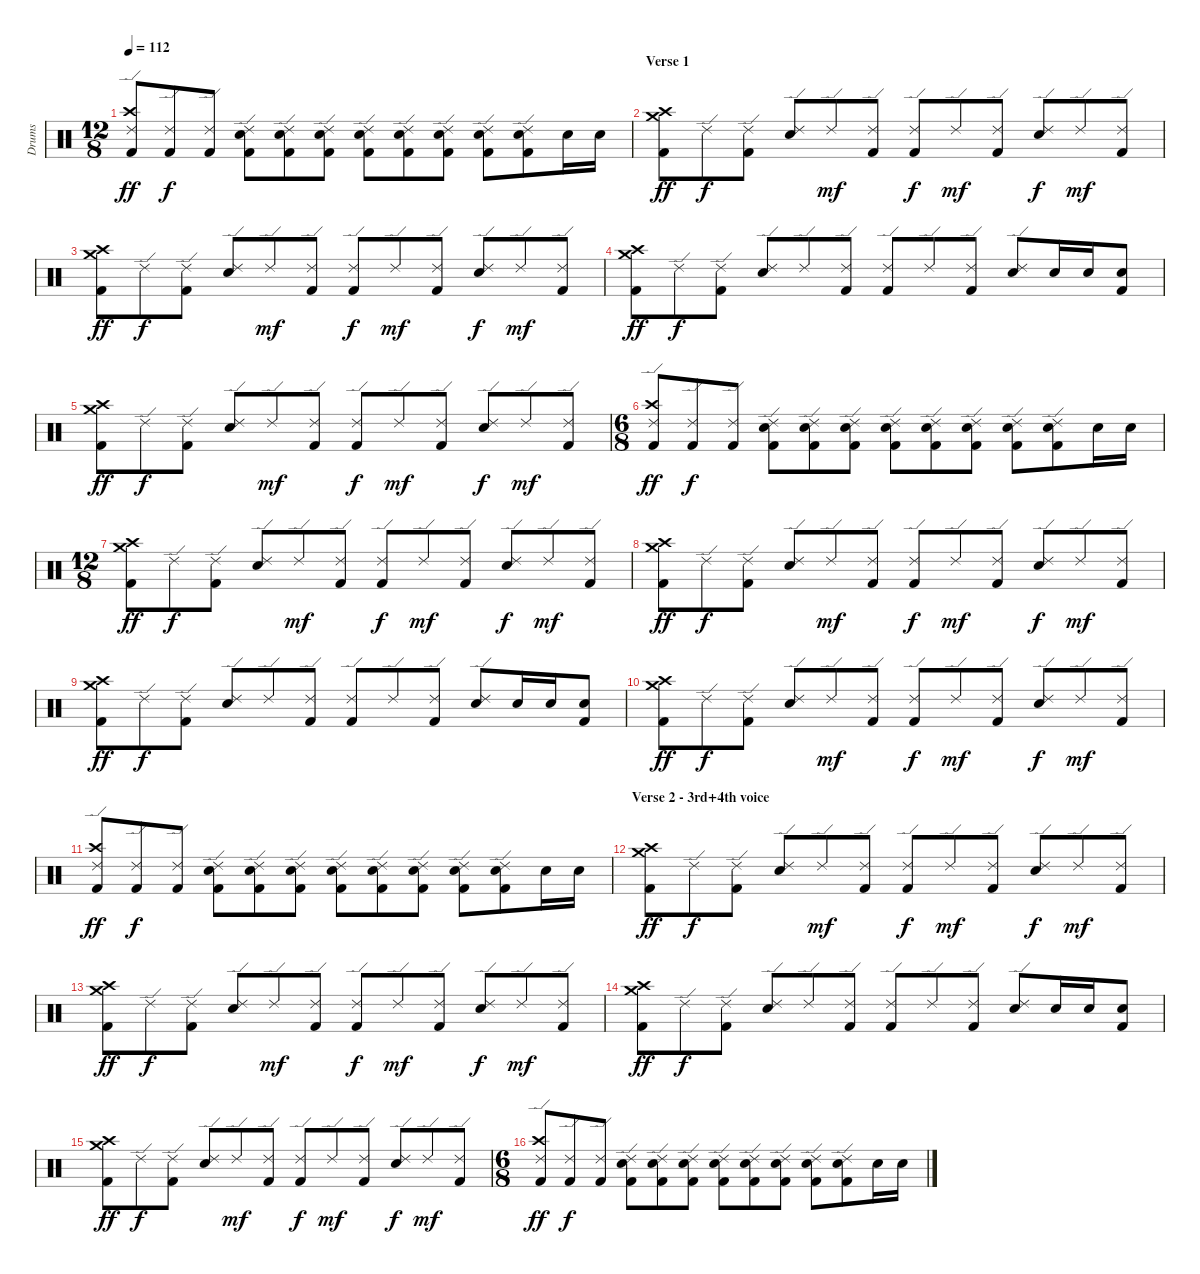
\track ("Drums" "Drums") {instrument percussion}
\staff {score}
\articulation defaults
\ts (12 8)
\tempo 112
\clef neutral
\ks c
("Ride (edge) 2" "Crash high (hit)" "Kick (hit) 2").8{dy ff} ("Ride (edge) 2" "Kick (hit) 2").8{dy f} ("Ride (edge) 2" "Kick (hit) 2").8 ("Ride (edge) 2" "Snare (hit) 2" "Kick (hit) 2").8 ("Ride (edge) 2" "Snare (hit) 2" "Kick (hit) 2").8 ("Ride (edge) 2" "Snare (hit) 2" "Kick (hit) 2").8 ("Ride (edge) 2" "Snare (hit) 2" "Kick (hit) 2").8 ("Ride (edge) 2" "Snare (hit) 2" "Kick (hit) 2").8 ("Ride (edge) 2" "Snare (hit) 2" "Kick (hit) 2").8 ("Ride (edge) 2" "Snare (hit) 2" "Kick (hit) 2").8 ("Ride (edge) 2" "Snare (hit) 2" "Kick (hit) 2").8 "Snare (hit) 2".16 "Snare (hit) 2".16 |
\section ("" "Verse 1")
("Crash high (hit)" "Crash medium (hit)" "Kick (hit) 2").8{dy ff} "Ride (edge) 2".8{dy f} ("Ride (edge) 2" "Kick (hit) 2").8 ("Ride (edge) 2" "Snare (hit) 2").8 "Ride (edge) 2".8{dy mf} ("Ride (edge) 2" "Kick (hit) 2").8 ("Ride (edge) 2" "Kick (hit) 2").8{dy f} "Ride (edge) 2".8{dy mf} ("Ride (edge) 2" "Kick (hit) 2").8 ("Ride (edge) 2" "Snare (hit) 2").8{dy f} "Ride (edge) 2".8{dy mf} ("Ride (edge) 2" "Kick (hit) 2").8 |
("Crash high (hit)" "Crash medium (hit)" "Kick (hit) 2").8{dy ff} "Ride (edge) 2".8{dy f} ("Ride (edge) 2" "Kick (hit) 2").8 ("Ride (edge) 2" "Snare (hit) 2").8 "Ride (edge) 2".8{dy mf} ("Ride (edge) 2" "Kick (hit) 2").8 ("Ride (edge) 2" "Kick (hit) 2").8{dy f} "Ride (edge) 2".8{dy mf} ("Ride (edge) 2" "Kick (hit) 2").8 ("Ride (edge) 2" "Snare (hit) 2").8{dy f} "Ride (edge) 2".8{dy mf} ("Ride (edge) 2" "Kick (hit) 2").8 |
("Crash high (hit)" "Crash medium (hit)" "Kick (hit) 2").8{dy ff} "Ride (edge) 2".8{dy f} ("Ride (edge) 2" "Kick (hit) 2").8 ("Ride (edge) 2" "Snare (hit) 2").8 "Ride (edge) 2".8 ("Ride (edge) 2" "Kick (hit) 2").8 ("Ride (edge) 2" "Kick (hit) 2").8 "Ride (edge) 2".8 ("Ride (edge) 2" "Kick (hit) 2").8 ("Ride (edge) 2" "Snare (hit) 2").8 "Snare (hit) 2".16 "Snare (hit) 2".16 ("Snare (hit) 2" "Kick (hit) 2").8 |
("Crash high (hit)" "Crash medium (hit)" "Kick (hit) 2").8{dy ff} "Ride (edge) 2".8{dy f} ("Ride (edge) 2" "Kick (hit) 2").8 ("Ride (edge) 2" "Snare (hit) 2").8 "Ride (edge) 2".8{dy mf} ("Ride (edge) 2" "Kick (hit) 2").8 ("Ride (edge) 2" "Kick (hit) 2").8{dy f} "Ride (edge) 2".8{dy mf} ("Ride (edge) 2" "Kick (hit) 2").8 ("Ride (edge) 2" "Snare (hit) 2").8{dy f} "Ride (edge) 2".8{dy mf} ("Ride (edge) 2" "Kick (hit) 2").8 |
\ts (6 8)
("Ride (edge) 2" "Crash high (hit)" "Kick (hit) 2").8{dy ff} ("Ride (edge) 2" "Kick (hit) 2").8{dy f} ("Ride (edge) 2" "Kick (hit) 2").8 ("Ride (edge) 2" "Snare (hit) 2" "Kick (hit) 2").8 ("Ride (edge) 2" "Snare (hit) 2" "Kick (hit) 2").8 ("Ride (edge) 2" "Snare (hit) 2" "Kick (hit) 2").8 ("Ride (edge) 2" "Snare (hit) 2" "Kick (hit) 2").8 ("Ride (edge) 2" "Snare (hit) 2" "Kick (hit) 2").8 ("Ride (edge) 2" "Snare (hit) 2" "Kick (hit) 2").8 ("Ride (edge) 2" "Snare (hit) 2" "Kick (hit) 2").8 ("Ride (edge) 2" "Snare (hit) 2" "Kick (hit) 2").8 "Snare (hit) 2".16 "Snare (hit) 2".16 |
\ts (12 8)
("Crash high (hit)" "Crash medium (hit)" "Kick (hit) 2").8{dy ff} "Ride (edge) 2".8{dy f} ("Ride (edge) 2" "Kick (hit) 2").8 ("Ride (edge) 2" "Snare (hit) 2").8 "Ride (edge) 2".8{dy mf} ("Ride (edge) 2" "Kick (hit) 2").8 ("Ride (edge) 2" "Kick (hit) 2").8{dy f} "Ride (edge) 2".8{dy mf} ("Ride (edge) 2" "Kick (hit) 2").8 ("Ride (edge) 2" "Snare (hit) 2").8{dy f} "Ride (edge) 2".8{dy mf} ("Ride (edge) 2" "Kick (hit) 2").8 |
("Crash high (hit)" "Crash medium (hit)" "Kick (hit) 2").8{dy ff} "Ride (edge) 2".8{dy f} ("Ride (edge) 2" "Kick (hit) 2").8 ("Ride (edge) 2" "Snare (hit) 2").8 "Ride (edge) 2".8{dy mf} ("Ride (edge) 2" "Kick (hit) 2").8 ("Ride (edge) 2" "Kick (hit) 2").8{dy f} "Ride (edge) 2".8{dy mf} ("Ride (edge) 2" "Kick (hit) 2").8 ("Ride (edge) 2" "Snare (hit) 2").8{dy f} "Ride (edge) 2".8{dy mf} ("Ride (edge) 2" "Kick (hit) 2").8 |
("Crash high (hit)" "Crash medium (hit)" "Kick (hit) 2").8{dy ff} "Ride (edge) 2".8{dy f} ("Ride (edge) 2" "Kick (hit) 2").8 ("Ride (edge) 2" "Snare (hit) 2").8 "Ride (edge) 2".8 ("Ride (edge) 2" "Kick (hit) 2").8 ("Ride (edge) 2" "Kick (hit) 2").8 "Ride (edge) 2".8 ("Ride (edge) 2" "Kick (hit) 2").8 ("Ride (edge) 2" "Snare (hit) 2").8 "Snare (hit) 2".16 "Snare (hit) 2".16 ("Snare (hit) 2" "Kick (hit) 2").8 |
("Crash high (hit)" "Crash medium (hit)" "Kick (hit) 2").8{dy ff} "Ride (edge) 2".8{dy f} ("Ride (edge) 2" "Kick (hit) 2").8 ("Ride (edge) 2" "Snare (hit) 2").8 "Ride (edge) 2".8{dy mf} ("Ride (edge) 2" "Kick (hit) 2").8 ("Ride (edge) 2" "Kick (hit) 2").8{dy f} "Ride (edge) 2".8{dy mf} ("Ride (edge) 2" "Kick (hit) 2").8 ("Ride (edge) 2" "Snare (hit) 2").8{dy f} "Ride (edge) 2".8{dy mf} ("Ride (edge) 2" "Kick (hit) 2").8 |
("Ride (edge) 2" "Crash high (hit)" "Kick (hit) 2").8{dy ff} ("Ride (edge) 2" "Kick (hit) 2").8{dy f} ("Ride (edge) 2" "Kick (hit) 2").8 ("Ride (edge) 2" "Snare (hit) 2" "Kick (hit) 2").8 ("Ride (edge) 2" "Snare (hit) 2" "Kick (hit) 2").8 ("Ride (edge) 2" "Snare (hit) 2" "Kick (hit) 2").8 ("Ride (edge) 2" "Snare (hit) 2" "Kick (hit) 2").8 ("Ride (edge) 2" "Snare (hit) 2" "Kick (hit) 2").8 ("Ride (edge) 2" "Snare (hit) 2" "Kick (hit) 2").8 ("Ride (edge) 2" "Snare (hit) 2" "Kick (hit) 2").8 ("Ride (edge) 2" "Snare (hit) 2" "Kick (hit) 2").8 "Snare (hit) 2".16 "Snare (hit) 2".16 |
\section ("" "Verse 2 - 3rd+4th voice")
("Crash high (hit)" "Crash medium (hit)" "Kick (hit) 2").8{dy ff} "Ride (edge) 2".8{dy f} ("Ride (edge) 2" "Kick (hit) 2").8 ("Ride (edge) 2" "Snare (hit) 2").8 "Ride (edge) 2".8{dy mf} ("Ride (edge) 2" "Kick (hit) 2").8 ("Ride (edge) 2" "Kick (hit) 2").8{dy f} "Ride (edge) 2".8{dy mf} ("Ride (edge) 2" "Kick (hit) 2").8 ("Ride (edge) 2" "Snare (hit) 2").8{dy f} "Ride (edge) 2".8{dy mf} ("Ride (edge) 2" "Kick (hit) 2").8 |
("Crash high (hit)" "Crash medium (hit)" "Kick (hit) 2").8{dy ff} "Ride (edge) 2".8{dy f} ("Ride (edge) 2" "Kick (hit) 2").8 ("Ride (edge) 2" "Snare (hit) 2").8 "Ride (edge) 2".8{dy mf} ("Ride (edge) 2" "Kick (hit) 2").8 ("Ride (edge) 2" "Kick (hit) 2").8{dy f} "Ride (edge) 2".8{dy mf} ("Ride (edge) 2" "Kick (hit) 2").8 ("Ride (edge) 2" "Snare (hit) 2").8{dy f} "Ride (edge) 2".8{dy mf} ("Ride (edge) 2" "Kick (hit) 2").8 |
("Crash high (hit)" "Crash medium (hit)" "Kick (hit) 2").8{dy ff} "Ride (edge) 2".8{dy f} ("Ride (edge) 2" "Kick (hit) 2").8 ("Ride (edge) 2" "Snare (hit) 2").8 "Ride (edge) 2".8 ("Ride (edge) 2" "Kick (hit) 2").8 ("Ride (edge) 2" "Kick (hit) 2").8 "Ride (edge) 2".8 ("Ride (edge) 2" "Kick (hit) 2").8 ("Ride (edge) 2" "Snare (hit) 2").8 "Snare (hit) 2".16 "Snare (hit) 2".16 ("Snare (hit) 2" "Kick (hit) 2").8 |
("Crash high (hit)" "Crash medium (hit)" "Kick (hit) 2").8{dy ff} "Ride (edge) 2".8{dy f} ("Ride (edge) 2" "Kick (hit) 2").8 ("Ride (edge) 2" "Snare (hit) 2").8 "Ride (edge) 2".8{dy mf} ("Ride (edge) 2" "Kick (hit) 2").8 ("Ride (edge) 2" "Kick (hit) 2").8{dy f} "Ride (edge) 2".8{dy mf} ("Ride (edge) 2" "Kick (hit) 2").8 ("Ride (edge) 2" "Snare (hit) 2").8{dy f} "Ride (edge) 2".8{dy mf} ("Ride (edge) 2" "Kick (hit) 2").8 |
\ts (6 8)
("Ride (edge) 2" "Crash high (hit)" "Kick (hit) 2").8{dy ff} ("Ride (edge) 2" "Kick (hit) 2").8{dy f} ("Ride (edge) 2" "Kick (hit) 2").8 ("Ride (edge) 2" "Snare (hit) 2" "Kick (hit) 2").8 ("Ride (edge) 2" "Snare (hit) 2" "Kick (hit) 2").8 ("Ride (edge) 2" "Snare (hit) 2" "Kick (hit) 2").8 ("Ride (edge) 2" "Snare (hit) 2" "Kick (hit) 2").8 ("Ride (edge) 2" "Snare (hit) 2" "Kick (hit) 2").8 ("Ride (edge) 2" "Snare (hit) 2" "Kick (hit) 2").8 ("Ride (edge) 2" "Snare (hit) 2" "Kick (hit) 2").8 ("Ride (edge) 2" "Snare (hit) 2" "Kick (hit) 2").8 "Snare (hit) 2".16 "Snare (hit) 2".16
